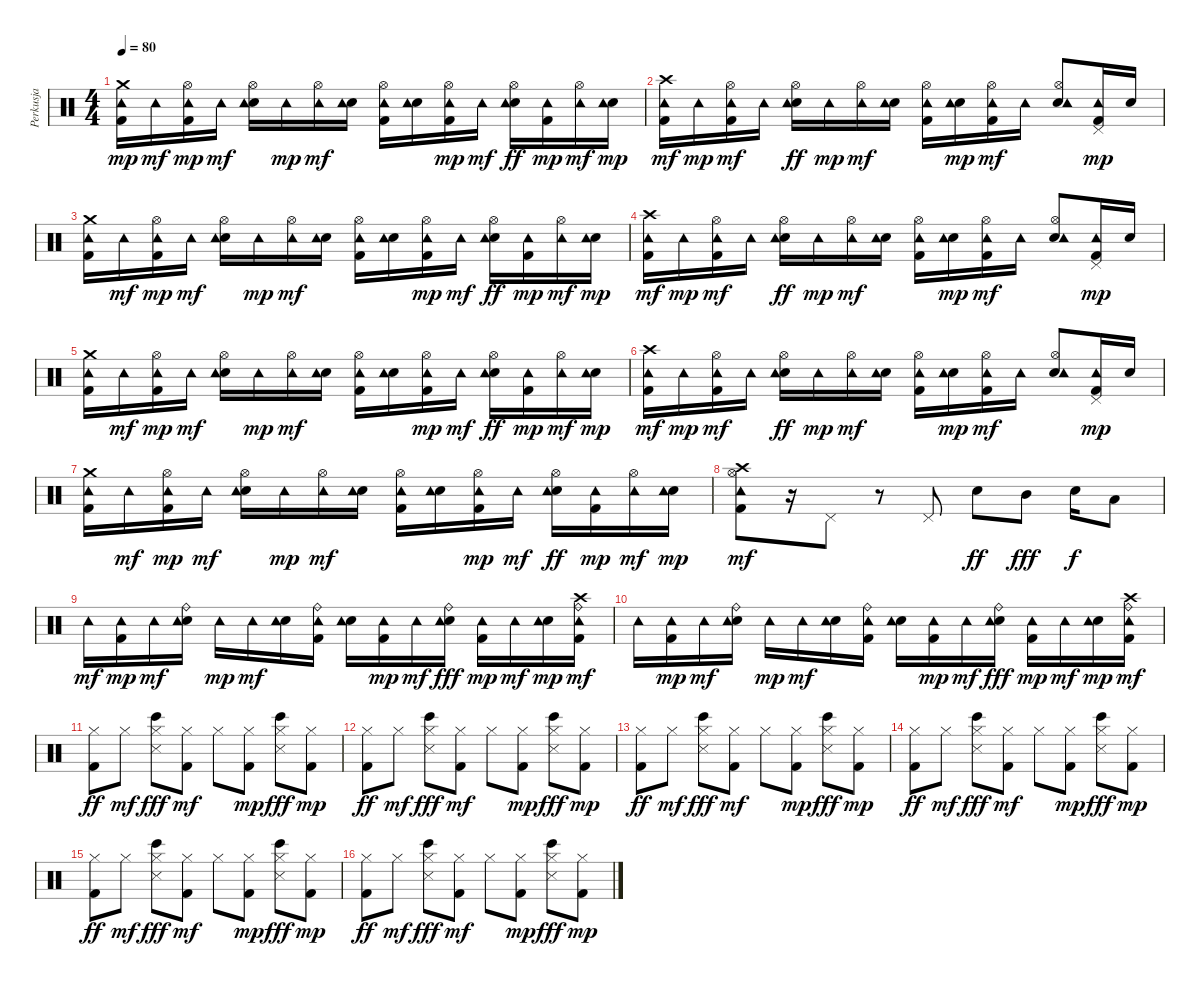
\track ("Perkusja" "Perkusja") {instrument percussion}
\staff {score}
\articulation defaults
\ts (4 4)
\tempo 80
\clef neutral
\ks c
("Kick (hit) 2" "Tambourine (hit)" "Crash medium (hit)").16{dy mp} "Tambourine (hit)".16{dy mf} ("Kick (hit) 2" "Hi-Hat (open)" "Tambourine (hit)").16{dy mp} "Tambourine (hit)".16{dy mf} ("Electric Snare (hit)" "Hi-Hat (open)" "Tambourine (hit)").16 "Tambourine (hit)".16{dy mp} ("Hi-Hat (open)" "Tambourine (hit)").16{dy mf} ("Electric Snare (hit)" "Tambourine (hit)").16 ("Kick (hit) 2" "Hi-Hat (open)" "Tambourine (hit)").16 ("Electric Snare (hit)" "Tambourine (hit)").16 ("Kick (hit) 2" "Hi-Hat (open)" "Tambourine (hit)").16{dy mp} "Tambourine (hit)".16{dy mf} ("Electric Snare (hit)" "Hi-Hat (open)" "Tambourine (hit)").16{dy ff} ("Kick (hit) 2" "Tambourine (hit)").16{dy mp} ("Hi-Hat (open)" "Tambourine (hit)").16{dy mf} ("Electric Snare (hit)" "Tambourine (hit)").16{dy mp} |
("Kick (hit) 2" "Crash high (hit)" "Tambourine (hit)").16{dy mf} "Tambourine (hit)".16{dy mp} ("Kick (hit) 2" "Hi-Hat (open)" "Tambourine (hit)").16{dy mf} "Tambourine (hit)".16 ("Electric Snare (hit)" "Hi-Hat (open)" "Tambourine (hit)").16{dy ff} "Tambourine (hit)".16{dy mp} ("Hi-Hat (open)" "Tambourine (hit)").16{dy mf} ("Electric Snare (hit)" "Tambourine (hit)").16 ("Kick (hit) 2" "Hi-Hat (open)" "Tambourine (hit)").16 ("Electric Snare (hit)" "Tambourine (hit)").16{dy mp} ("Kick (hit) 2" "Hi-Hat (open)" "Tambourine (hit)").16{dy mf} "Tambourine (hit)".16 ("Electric Snare (hit)" "Hi-Hat (open)" "Tambourine (hit)").8 ("Kick (hit) 2" "Pedal Hi-Hat (hit)" "Tambourine (hit)").16{dy mp} "Electric Snare (hit)".16 |
("Kick (hit) 2" "Tambourine (hit)" "Crash medium (hit)").16 "Tambourine (hit)".16{dy mf} ("Kick (hit) 2" "Hi-Hat (open)" "Tambourine (hit)").16{dy mp} "Tambourine (hit)".16{dy mf} ("Electric Snare (hit)" "Hi-Hat (open)" "Tambourine (hit)").16 "Tambourine (hit)".16{dy mp} ("Hi-Hat (open)" "Tambourine (hit)").16{dy mf} ("Electric Snare (hit)" "Tambourine (hit)").16 ("Kick (hit) 2" "Hi-Hat (open)" "Tambourine (hit)").16 ("Electric Snare (hit)" "Tambourine (hit)").16 ("Kick (hit) 2" "Hi-Hat (open)" "Tambourine (hit)").16{dy mp} "Tambourine (hit)".16{dy mf} ("Electric Snare (hit)" "Hi-Hat (open)" "Tambourine (hit)").16{dy ff} ("Kick (hit) 2" "Tambourine (hit)").16{dy mp} ("Hi-Hat (open)" "Tambourine (hit)").16{dy mf} ("Electric Snare (hit)" "Tambourine (hit)").16{dy mp} |
("Kick (hit) 2" "Crash high (hit)" "Tambourine (hit)").16{dy mf} "Tambourine (hit)".16{dy mp} ("Kick (hit) 2" "Hi-Hat (open)" "Tambourine (hit)").16{dy mf} "Tambourine (hit)".16 ("Electric Snare (hit)" "Hi-Hat (open)" "Tambourine (hit)").16{dy ff} "Tambourine (hit)".16{dy mp} ("Hi-Hat (open)" "Tambourine (hit)").16{dy mf} ("Electric Snare (hit)" "Tambourine (hit)").16 ("Kick (hit) 2" "Hi-Hat (open)" "Tambourine (hit)").16 ("Electric Snare (hit)" "Tambourine (hit)").16{dy mp} ("Kick (hit) 2" "Hi-Hat (open)" "Tambourine (hit)").16{dy mf} "Tambourine (hit)".16 ("Electric Snare (hit)" "Hi-Hat (open)" "Tambourine (hit)").8 ("Kick (hit) 2" "Pedal Hi-Hat (hit)" "Tambourine (hit)").16{dy mp} "Electric Snare (hit)".16 |
("Kick (hit) 2" "Tambourine (hit)" "Crash medium (hit)").16 "Tambourine (hit)".16{dy mf} ("Kick (hit) 2" "Hi-Hat (open)" "Tambourine (hit)").16{dy mp} "Tambourine (hit)".16{dy mf} ("Electric Snare (hit)" "Hi-Hat (open)" "Tambourine (hit)").16 "Tambourine (hit)".16{dy mp} ("Hi-Hat (open)" "Tambourine (hit)").16{dy mf} ("Electric Snare (hit)" "Tambourine (hit)").16 ("Kick (hit) 2" "Hi-Hat (open)" "Tambourine (hit)").16 ("Electric Snare (hit)" "Tambourine (hit)").16 ("Kick (hit) 2" "Hi-Hat (open)" "Tambourine (hit)").16{dy mp} "Tambourine (hit)".16{dy mf} ("Electric Snare (hit)" "Hi-Hat (open)" "Tambourine (hit)").16{dy ff} ("Kick (hit) 2" "Tambourine (hit)").16{dy mp} ("Hi-Hat (open)" "Tambourine (hit)").16{dy mf} ("Electric Snare (hit)" "Tambourine (hit)").16{dy mp} |
("Kick (hit) 2" "Crash high (hit)" "Tambourine (hit)").16{dy mf} "Tambourine (hit)".16{dy mp} ("Kick (hit) 2" "Hi-Hat (open)" "Tambourine (hit)").16{dy mf} "Tambourine (hit)".16 ("Electric Snare (hit)" "Hi-Hat (open)" "Tambourine (hit)").16{dy ff} "Tambourine (hit)".16{dy mp} ("Hi-Hat (open)" "Tambourine (hit)").16{dy mf} ("Electric Snare (hit)" "Tambourine (hit)").16 ("Kick (hit) 2" "Hi-Hat (open)" "Tambourine (hit)").16 ("Electric Snare (hit)" "Tambourine (hit)").16{dy mp} ("Kick (hit) 2" "Hi-Hat (open)" "Tambourine (hit)").16{dy mf} "Tambourine (hit)".16 ("Electric Snare (hit)" "Hi-Hat (open)" "Tambourine (hit)").8 ("Kick (hit) 2" "Pedal Hi-Hat (hit)" "Tambourine (hit)").16{dy mp} "Electric Snare (hit)".16 |
("Kick (hit) 2" "Tambourine (hit)" "Crash medium (hit)").16 "Tambourine (hit)".16{dy mf} ("Kick (hit) 2" "Hi-Hat (open)" "Tambourine (hit)").16{dy mp} "Tambourine (hit)".16{dy mf} ("Electric Snare (hit)" "Hi-Hat (open)" "Tambourine (hit)").16 "Tambourine (hit)".16{dy mp} ("Hi-Hat (open)" "Tambourine (hit)").16{dy mf} ("Electric Snare (hit)" "Tambourine (hit)").16 ("Kick (hit) 2" "Hi-Hat (open)" "Tambourine (hit)").16 ("Electric Snare (hit)" "Tambourine (hit)").16 ("Kick (hit) 2" "Hi-Hat (open)" "Tambourine (hit)").16{dy mp} "Tambourine (hit)".16{dy mf} ("Electric Snare (hit)" "Hi-Hat (open)" "Tambourine (hit)").16{dy ff} ("Kick (hit) 2" "Tambourine (hit)").16{dy mp} ("Hi-Hat (open)" "Tambourine (hit)").16{dy mf} ("Electric Snare (hit)" "Tambourine (hit)").16{dy mp} |
("Kick (hit) 2" "Hi-Hat (open)" "Crash high (hit)" "Tambourine (hit)").8{dy mf} r.16 "Pedal Hi-Hat (hit)".8 r.8 "Pedal Hi-Hat (hit)".8 "Electric Snare (hit)".8{dy ff} "Mid Tom (hit)".8{dy fff} "Electric Snare (hit)".16{dy f} "Low Tom (hit)".8 |
"Tambourine (hit)".16{dy mf} ("Kick (hit) 2" "Tambourine (hit)").16{dy mp} "Tambourine (hit)".16{dy mf} ("Ride (bell)" "Electric Snare (hit)" "Tambourine (hit)").16 "Tambourine (hit)".16{dy mp} "Tambourine (hit)".16{dy mf} ("Electric Snare (hit)" "Tambourine (hit)").16 ("Ride (bell)" "Kick (hit) 2" "Tambourine (hit)").16 ("Electric Snare (hit)" "Tambourine (hit)").16 ("Kick (hit) 2" "Tambourine (hit)").16{dy mp} "Tambourine (hit)".16{dy mf} ("Ride (bell)" "Electric Snare (hit)" "Tambourine (hit)").16{dy fff} ("Kick (hit) 2" "Tambourine (hit)").16{dy mp} "Tambourine (hit)".16{dy mf} ("Electric Snare (hit)" "Tambourine (hit)").16{dy mp} ("Ride (bell)" "Kick (hit) 2" "Crash high (hit)" "Tambourine (hit)").16{dy mf} |
"Tambourine (hit)".16 ("Kick (hit) 2" "Tambourine (hit)").16{dy mp} "Tambourine (hit)".16{dy mf} ("Ride (bell)" "Electric Snare (hit)" "Tambourine (hit)").16 "Tambourine (hit)".16{dy mp} "Tambourine (hit)".16{dy mf} ("Electric Snare (hit)" "Tambourine (hit)").16 ("Ride (bell)" "Kick (hit) 2" "Tambourine (hit)").16 ("Electric Snare (hit)" "Tambourine (hit)").16 ("Kick (hit) 2" "Tambourine (hit)").16{dy mp} "Tambourine (hit)".16{dy mf} ("Ride (bell)" "Electric Snare (hit)" "Tambourine (hit)").16{dy fff} ("Kick (hit) 2" "Tambourine (hit)").16{dy mp} "Tambourine (hit)".16{dy mf} ("Electric Snare (hit)" "Tambourine (hit)").16{dy mp} ("Ride (bell)" "Kick (hit) 2" "Crash high (hit)" "Tambourine (hit)").16{dy mf} |
("Kick (hit) 2" "Hi-Hat (closed)").8{dy ff} "Hi-Hat (closed)".8{dy mf} ("Bongo High (hit)" "Snare (side stick) 3" "Hi-Hat (closed)").8{dy fff} ("Kick (hit) 2" "Hi-Hat (closed)").8{dy mf} "Hi-Hat (closed)".8 ("Kick (hit) 2" "Hi-Hat (closed)").8{dy mp} ("Bongo High (hit)" "Snare (side stick) 3" "Hi-Hat (closed)").8{dy fff} ("Hi-Hat (closed)" "Kick (hit) 2").8{dy mp} |
("Kick (hit) 2" "Hi-Hat (closed)").8{dy ff} "Hi-Hat (closed)".8{dy mf} ("Bongo High (hit)" "Snare (side stick) 3" "Hi-Hat (closed)").8{dy fff} ("Kick (hit) 2" "Hi-Hat (closed)").8{dy mf} "Hi-Hat (closed)".8 ("Kick (hit) 2" "Hi-Hat (closed)").8{dy mp} ("Bongo High (hit)" "Snare (side stick) 3" "Hi-Hat (closed)").8{dy fff} ("Hi-Hat (closed)" "Kick (hit) 2").8{dy mp} |
("Kick (hit) 2" "Hi-Hat (closed)").8{dy ff} "Hi-Hat (closed)".8{dy mf} ("Bongo High (hit)" "Snare (side stick) 3" "Hi-Hat (closed)").8{dy fff} ("Kick (hit) 2" "Hi-Hat (closed)").8{dy mf} "Hi-Hat (closed)".8 ("Kick (hit) 2" "Hi-Hat (closed)").8{dy mp} ("Bongo High (hit)" "Snare (side stick) 3" "Hi-Hat (closed)").8{dy fff} ("Hi-Hat (closed)" "Kick (hit) 2").8{dy mp} |
("Kick (hit) 2" "Hi-Hat (closed)").8{dy ff} "Hi-Hat (closed)".8{dy mf} ("Bongo High (hit)" "Snare (side stick) 3" "Hi-Hat (closed)").8{dy fff} ("Kick (hit) 2" "Hi-Hat (closed)").8{dy mf} "Hi-Hat (closed)".8 ("Kick (hit) 2" "Hi-Hat (closed)").8{dy mp} ("Bongo High (hit)" "Snare (side stick) 3" "Hi-Hat (closed)").8{dy fff} ("Hi-Hat (closed)" "Kick (hit) 2").8{dy mp} |
("Kick (hit) 2" "Hi-Hat (closed)").8{dy ff} "Hi-Hat (closed)".8{dy mf} ("Bongo High (hit)" "Snare (side stick) 3" "Hi-Hat (closed)").8{dy fff} ("Kick (hit) 2" "Hi-Hat (closed)").8{dy mf} "Hi-Hat (closed)".8 ("Kick (hit) 2" "Hi-Hat (closed)").8{dy mp} ("Bongo High (hit)" "Snare (side stick) 3" "Hi-Hat (closed)").8{dy fff} ("Hi-Hat (closed)" "Kick (hit) 2").8{dy mp} |
("Kick (hit) 2" "Hi-Hat (closed)").8{dy ff} "Hi-Hat (closed)".8{dy mf} ("Bongo High (hit)" "Snare (side stick) 3" "Hi-Hat (closed)").8{dy fff} ("Kick (hit) 2" "Hi-Hat (closed)").8{dy mf} "Hi-Hat (closed)".8 ("Kick (hit) 2" "Hi-Hat (closed)").8{dy mp} ("Bongo High (hit)" "Snare (side stick) 3" "Hi-Hat (closed)").8{dy fff} ("Hi-Hat (closed)" "Kick (hit) 2").8{dy mp}
